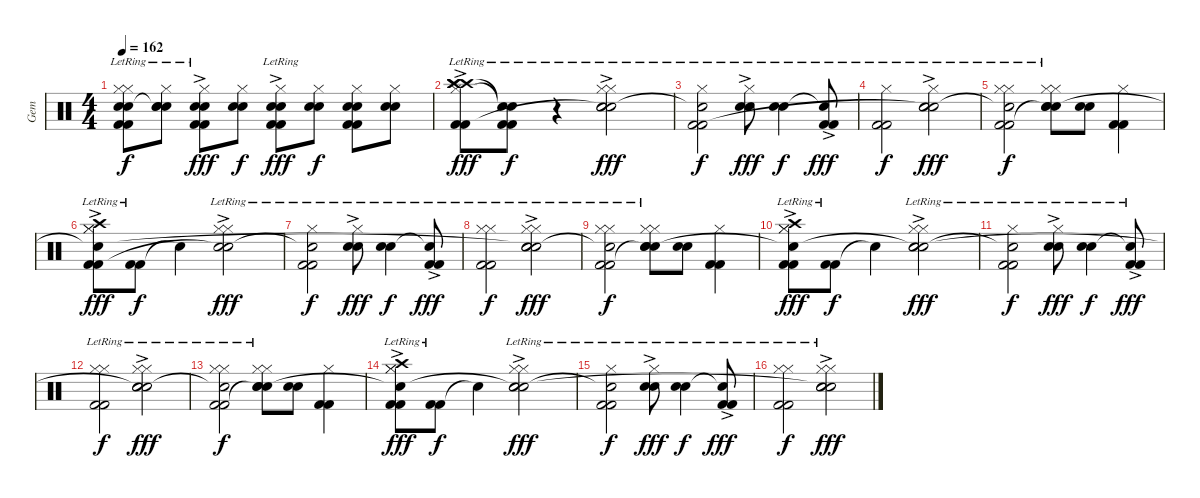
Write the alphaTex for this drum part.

\track ("Gem" "Gem") {instrument percussion}
\staff {score}
\articulation defaults
\ts (4 4)
\tempo 162
\clef neutral
\ks c
("Hi-Hat (closed)"{lr} "Hi-Hat (closed)"{lr} "Electric Snare (hit)"{lr} "Snare (hit) 2" "Kick (hit) 2" "Kick (hit) 2"{lr}).8{dy f} ("Hi-Hat (closed)"{lr} "Electric Snare (hit)" "Snare (hit) 2" "Snare (hit)"{t}).8 ("Hi-Hat (closed)" "Electric Snare (hit)"{lr} "Snare (hit) 2"{ac} "Kick (hit) 2" "Kick (hit) 2").8{dy fff} ("Hi-Hat (closed)" "Electric Snare (hit)" "Snare (hit) 2").8{dy f} ("Hi-Hat (closed)" "Electric Snare (hit)"{lr} "Snare (hit) 2"{ac lr} "Kick (hit) 2" "Kick (hit) 2").8{dy fff} ("Hi-Hat (closed)" "Electric Snare (hit)" "Snare (hit) 2").8{dy f} ("Hi-Hat (closed)" "Electric Snare (hit)" "Snare (hit) 2" "Kick (hit) 2" "Kick (hit) 2").8 ("Hi-Hat (closed)" "Electric Snare (hit)" "Snare (hit) 2").8 |
("Hi-Hat (closed)"{lr} "Crash high (hit)"{ac lr} "Crash high (hit)"{ac lr} "Crash high (hit)"{ac lr} "Kick (hit) 2" "Kick (hit) 2"{lr}).8{dy fff} ("Snare (hit)"{t} "Snare (hit)"{t} "Kick (hit) 2" "Kick (hit) 2"{lr}).8{dy f} r.4 ("Hi-Hat (closed)"{lr} "Hi-Hat (closed)"{lr} "Snare (hit) 2" "Snare (hit) 2"{ac lr} "Snare (hit)"{t}).2{dy fff} |
("Hi-Hat (closed)"{lr} "Kick (hit) 2" "Snare (hit)"{t} "Kick (hit) 2"{lr}).2{dy f} ("Hi-Hat (closed)"{lr} "Snare (hit) 2" "Snare (hit) 2"{ac lr}).8{dy fff} ("Snare (hit) 2" "Snare (hit) 2"{lr}).4{dy f} ("Kick (hit) 2" "Snare (hit)"{t} "Kick (hit) 2"{ac lr}).8{dy fff} |
("Hi-Hat (closed)"{lr} "Kick (hit) 2"{lr} "Kick (hit) 2"{lr}).2{dy f} ("Hi-Hat (closed)"{lr} "Snare (hit) 2"{lr} "Snare (hit) 2"{ac lr} "Snare (hit)"{t}).2{dy fff} |
("Hi-Hat (closed)"{lr} "Hi-Hat (closed)"{lr} "Kick (hit) 2" "Snare (hit)"{t} "Kick (hit) 2"{lr}).2{dy f} ("Hi-Hat (closed)"{lr} "Hi-Hat (closed)"{lr} "Snare (hit) 2" "Snare (hit) 2"{lr} "Snare (hit)"{t}).8 ("Snare (hit) 2" "Snare (hit) 2").8 ("Hi-Hat (closed)" "Kick (hit) 2" "Kick (hit) 2").4 |
("Hi-Hat (closed)"{lr} "Hi-Hat (closed)"{lr} "Crash high (hit)"{ac lr} "Kick (hit) 2" "Snare (hit)"{t} "Kick (hit) 2"{lr}).8{dy fff} ("Kick (hit) 2" "Kick (hit) 2"{lr}).8{dy f} "Snare (hit)"{t}.4 ("Hi-Hat (closed)"{lr} "Hi-Hat (closed)"{lr} "Snare (hit) 2"{ac lr} "Snare (hit)"{t}).2{dy fff} |
("Hi-Hat (closed)"{lr} "Kick (hit) 2" "Snare (hit)"{t} "Kick (hit) 2"{lr}).2{dy f} ("Hi-Hat (closed)"{lr} "Snare (hit) 2" "Snare (hit) 2"{ac lr}).8{dy fff} ("Snare (hit) 2" "Snare (hit) 2"{lr}).4{dy f} ("Kick (hit) 2" "Snare (hit)"{t} "Kick (hit) 2"{ac lr}).8{dy fff} |
("Hi-Hat (closed)"{lr} "Hi-Hat (closed)"{lr} "Kick (hit) 2" "Kick (hit) 2"{lr}).2{dy f} ("Hi-Hat (closed)"{lr} "Hi-Hat (closed)"{lr} "Snare (hit) 2" "Snare (hit) 2"{ac lr} "Snare (hit)"{t}).2{dy fff} |
("Hi-Hat (closed)"{lr} "Hi-Hat (closed)"{lr} "Kick (hit) 2" "Snare (hit)"{t} "Kick (hit) 2"{lr}).2{dy f} ("Hi-Hat (closed)"{lr} "Hi-Hat (closed)"{lr} "Snare (hit) 2" "Snare (hit) 2"{lr} "Snare (hit)"{t}).8 ("Snare (hit) 2" "Snare (hit) 2").8 ("Hi-Hat (closed)" "Kick (hit) 2" "Kick (hit) 2").4 |
("Hi-Hat (closed)"{lr} "Hi-Hat (closed)"{lr} "Crash high (hit)"{ac lr} "Kick (hit) 2" "Snare (hit)"{t} "Kick (hit) 2"{lr}).8{dy fff} ("Kick (hit) 2" "Kick (hit) 2"{lr}).8{dy f} "Snare (hit)"{t}.4 ("Hi-Hat (closed)"{lr} "Hi-Hat (closed)"{lr} "Snare (hit) 2" "Snare (hit) 2"{ac lr} "Snare (hit)"{t}).2{dy fff} |
("Hi-Hat (closed)"{lr} "Kick (hit) 2" "Snare (hit)"{t} "Kick (hit) 2"{lr}).2{dy f} ("Hi-Hat (closed)"{lr} "Snare (hit) 2" "Snare (hit) 2"{ac lr}).8{dy fff} ("Snare (hit) 2" "Snare (hit) 2"{lr}).4{dy f} ("Kick (hit) 2" "Snare (hit)"{t} "Kick (hit) 2"{ac lr}).8{dy fff} |
("Hi-Hat (closed)"{lr} "Hi-Hat (closed)"{lr} "Kick (hit) 2" "Kick (hit) 2"{lr}).2{dy f} ("Hi-Hat (closed)"{lr} "Hi-Hat (closed)"{lr} "Snare (hit) 2" "Snare (hit) 2"{ac lr} "Snare (hit)"{t}).2{dy fff} |
("Hi-Hat (closed)"{lr} "Hi-Hat (closed)"{lr} "Kick (hit) 2" "Snare (hit)"{t} "Kick (hit) 2"{lr}).2{dy f} ("Hi-Hat (closed)"{lr} "Hi-Hat (closed)"{lr} "Snare (hit) 2" "Snare (hit) 2"{lr} "Snare (hit)"{t}).8 ("Snare (hit) 2" "Snare (hit) 2").8 ("Hi-Hat (closed)" "Kick (hit) 2" "Kick (hit) 2").4 |
("Hi-Hat (closed)"{lr} "Hi-Hat (closed)"{lr} "Crash high (hit)"{ac lr} "Kick (hit) 2" "Snare (hit)"{t} "Kick (hit) 2"{lr}).8{dy fff} ("Kick (hit) 2" "Kick (hit) 2"{lr}).8{dy f} "Snare (hit)"{t}.4 ("Hi-Hat (closed)"{lr} "Hi-Hat (closed)"{lr} "Snare (hit) 2" "Snare (hit) 2"{ac lr} "Snare (hit)"{t}).2{dy fff} |
("Hi-Hat (closed)"{lr} "Kick (hit) 2" "Snare (hit)"{t} "Kick (hit) 2"{lr}).2{dy f} ("Hi-Hat (closed)"{lr} "Snare (hit) 2" "Snare (hit) 2"{ac lr}).8{dy fff} ("Snare (hit) 2" "Snare (hit) 2"{lr}).4{dy f} ("Kick (hit) 2" "Snare (hit)"{t} "Kick (hit) 2"{ac lr}).8{dy fff} |
("Hi-Hat (closed)"{lr} "Hi-Hat (closed)"{lr} "Kick (hit) 2" "Kick (hit) 2"{lr}).2{dy f} ("Hi-Hat (closed)"{lr} "Hi-Hat (closed)"{lr} "Snare (hit) 2" "Snare (hit) 2"{ac lr} "Snare (hit)"{t}).2{dy fff}
